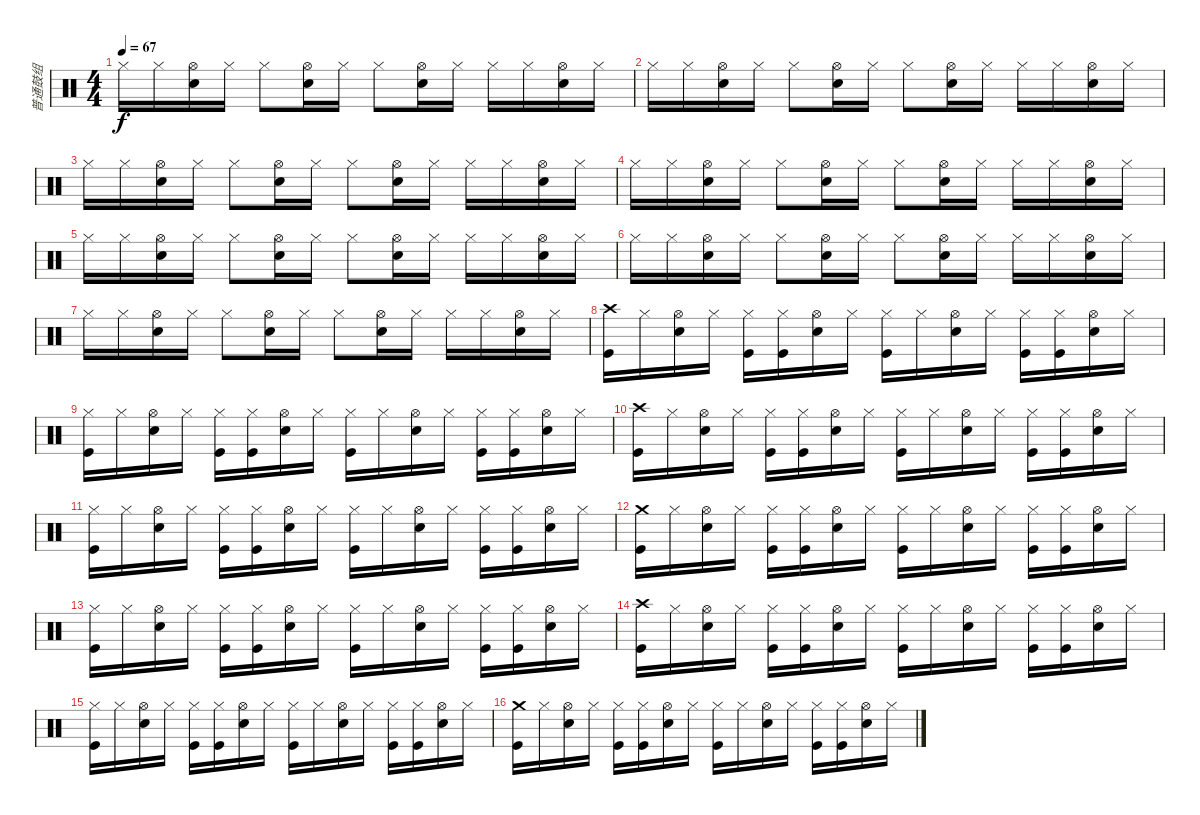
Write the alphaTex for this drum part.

\track ("普通鼓组" "普通鼓组") {instrument percussion}
\staff {score}
\articulation defaults
\ts (4 4)
\tempo 67
\clef neutral
\ks c "Hi-Hat (closed)".16{dy f} "Hi-Hat (closed)".16
("Hi-Hat (open)" "Metronome (bell)").16 "Hi-Hat (closed)".16 "Hi-Hat (closed)".8 ("Hi-Hat (open)" "Metronome (bell)").16 "Hi-Hat (closed)".16 "Hi-Hat (closed)".8 ("Hi-Hat (open)" "Metronome (bell)").16 "Hi-Hat (closed)".16 "Hi-Hat (closed)".16 "Hi-Hat (closed)".16 ("Hi-Hat (open)" "Metronome (bell)").16 "Hi-Hat (closed)".16 |
"Hi-Hat (closed)".16 "Hi-Hat (closed)".16 ("Hi-Hat (open)" "Metronome (bell)").16 "Hi-Hat (closed)".16 "Hi-Hat (closed)".8 ("Hi-Hat (open)" "Metronome (bell)").16 "Hi-Hat (closed)".16 "Hi-Hat (closed)".8 ("Hi-Hat (open)" "Metronome (bell)").16 "Hi-Hat (closed)".16 "Hi-Hat (closed)".16 "Hi-Hat (closed)".16 ("Hi-Hat (open)" "Metronome (bell)").16 "Hi-Hat (closed)".16 |
"Hi-Hat (closed)".16 "Hi-Hat (closed)".16 ("Hi-Hat (open)" "Metronome (bell)").16 "Hi-Hat (closed)".16 "Hi-Hat (closed)".8 ("Hi-Hat (open)" "Metronome (bell)").16 "Hi-Hat (closed)".16 "Hi-Hat (closed)".8 ("Hi-Hat (open)" "Metronome (bell)").16 "Hi-Hat (closed)".16 "Hi-Hat (closed)".16 "Hi-Hat (closed)".16 ("Hi-Hat (open)" "Metronome (bell)").16 "Hi-Hat (closed)".16 |
"Hi-Hat (closed)".16 "Hi-Hat (closed)".16 ("Hi-Hat (open)" "Metronome (bell)").16 "Hi-Hat (closed)".16 "Hi-Hat (closed)".8 ("Hi-Hat (open)" "Metronome (bell)").16 "Hi-Hat (closed)".16 "Hi-Hat (closed)".8 ("Hi-Hat (open)" "Metronome (bell)").16 "Hi-Hat (closed)".16 "Hi-Hat (closed)".16 "Hi-Hat (closed)".16 ("Hi-Hat (open)" "Metronome (bell)").16 "Hi-Hat (closed)".16 |
"Hi-Hat (closed)".16 "Hi-Hat (closed)".16 ("Hi-Hat (open)" "Metronome (bell)").16 "Hi-Hat (closed)".16 "Hi-Hat (closed)".8 ("Hi-Hat (open)" "Metronome (bell)").16 "Hi-Hat (closed)".16 "Hi-Hat (closed)".8 ("Hi-Hat (open)" "Metronome (bell)").16 "Hi-Hat (closed)".16 "Hi-Hat (closed)".16 "Hi-Hat (closed)".16 ("Hi-Hat (open)" "Metronome (bell)").16 "Hi-Hat (closed)".16 |
"Hi-Hat (closed)".16 "Hi-Hat (closed)".16 ("Hi-Hat (open)" "Metronome (bell)").16 "Hi-Hat (closed)".16 "Hi-Hat (closed)".8 ("Hi-Hat (open)" "Metronome (bell)").16 "Hi-Hat (closed)".16 "Hi-Hat (closed)".8 ("Hi-Hat (open)" "Metronome (bell)").16 "Hi-Hat (closed)".16 "Hi-Hat (closed)".16 "Hi-Hat (closed)".16 ("Hi-Hat (open)" "Metronome (bell)").16 "Hi-Hat (closed)".16 |
"Hi-Hat (closed)".16 "Hi-Hat (closed)".16 ("Hi-Hat (open)" "Metronome (bell)").16 "Hi-Hat (closed)".16 "Hi-Hat (closed)".8 ("Hi-Hat (open)" "Metronome (bell)").16 "Hi-Hat (closed)".16 "Hi-Hat (closed)".8 ("Hi-Hat (open)" "Metronome (bell)").16 "Hi-Hat (closed)".16 "Hi-Hat (closed)".16 "Hi-Hat (closed)".16 ("Hi-Hat (open)" "Metronome (bell)").16 "Hi-Hat (closed)".16 |
("Crash high (hit)" "Kick (hit)").16 "Hi-Hat (closed)".16 ("Hi-Hat (open)" "Snare (hit) 2").16 "Hi-Hat (closed)".16 ("Hi-Hat (closed)" "Kick (hit)").16 ("Hi-Hat (closed)" "Kick (hit)").16 ("Hi-Hat (open)" "Snare (hit) 2").16 "Hi-Hat (closed)".16 ("Hi-Hat (closed)" "Kick (hit)").16 "Hi-Hat (closed)".16 ("Hi-Hat (open)" "Snare (hit) 2").16 "Hi-Hat (closed)".16 ("Hi-Hat (closed)" "Kick (hit)").16 ("Hi-Hat (closed)" "Kick (hit)").16 ("Hi-Hat (open)" "Snare (hit) 2").16 "Hi-Hat (closed)".16 |
("Hi-Hat (closed)" "Kick (hit)").16 "Hi-Hat (closed)".16 ("Hi-Hat (open)" "Snare (hit) 2").16 "Hi-Hat (closed)".16 ("Hi-Hat (closed)" "Kick (hit)").16 ("Hi-Hat (closed)" "Kick (hit)").16 ("Hi-Hat (open)" "Snare (hit) 2").16 "Hi-Hat (closed)".16 ("Hi-Hat (closed)" "Kick (hit)").16 "Hi-Hat (closed)".16 ("Hi-Hat (open)" "Snare (hit) 2").16 "Hi-Hat (closed)".16 ("Hi-Hat (closed)" "Kick (hit)").16 ("Hi-Hat (closed)" "Kick (hit)").16 ("Hi-Hat (open)" "Snare (hit) 2").16 "Hi-Hat (closed)".16 |
("Crash high (hit)" "Kick (hit)").16 "Hi-Hat (closed)".16 ("Hi-Hat (open)" "Snare (hit) 2").16 "Hi-Hat (closed)".16 ("Hi-Hat (closed)" "Kick (hit)").16 ("Hi-Hat (closed)" "Kick (hit)").16 ("Hi-Hat (open)" "Snare (hit) 2").16 "Hi-Hat (closed)".16 ("Hi-Hat (closed)" "Kick (hit)").16 "Hi-Hat (closed)".16 ("Hi-Hat (open)" "Snare (hit) 2").16 "Hi-Hat (closed)".16 ("Hi-Hat (closed)" "Kick (hit)").16 ("Hi-Hat (closed)" "Kick (hit)").16 ("Hi-Hat (open)" "Snare (hit) 2").16 "Hi-Hat (closed)".16 |
("Hi-Hat (closed)" "Kick (hit)").16 "Hi-Hat (closed)".16 ("Hi-Hat (open)" "Snare (hit) 2").16 "Hi-Hat (closed)".16 ("Hi-Hat (closed)" "Kick (hit)").16 ("Hi-Hat (closed)" "Kick (hit)").16 ("Hi-Hat (open)" "Snare (hit) 2").16 "Hi-Hat (closed)".16 ("Hi-Hat (closed)" "Kick (hit)").16 "Hi-Hat (closed)".16 ("Hi-Hat (open)" "Snare (hit) 2").16 "Hi-Hat (closed)".16 ("Hi-Hat (closed)" "Kick (hit)").16 ("Hi-Hat (closed)" "Kick (hit)").16 ("Hi-Hat (open)" "Snare (hit) 2").16 "Hi-Hat (closed)".16 |
("Crash medium (hit)" "Kick (hit)").16 "Hi-Hat (closed)".16 ("Hi-Hat (open)" "Snare (hit) 2").16 "Hi-Hat (closed)".16 ("Hi-Hat (closed)" "Kick (hit)").16 ("Hi-Hat (closed)" "Kick (hit)").16 ("Hi-Hat (open)" "Snare (hit) 2").16 "Hi-Hat (closed)".16 ("Hi-Hat (closed)" "Kick (hit)").16 "Hi-Hat (closed)".16 ("Hi-Hat (open)" "Snare (hit) 2").16 "Hi-Hat (closed)".16 ("Hi-Hat (closed)" "Kick (hit)").16 ("Hi-Hat (closed)" "Kick (hit)").16 ("Hi-Hat (open)" "Snare (hit) 2").16 "Hi-Hat (closed)".16 |
("Hi-Hat (closed)" "Kick (hit)").16 "Hi-Hat (closed)".16 ("Hi-Hat (open)" "Snare (hit) 2").16 "Hi-Hat (closed)".16 ("Hi-Hat (closed)" "Kick (hit)").16 ("Hi-Hat (closed)" "Kick (hit)").16 ("Hi-Hat (open)" "Snare (hit) 2").16 "Hi-Hat (closed)".16 ("Hi-Hat (closed)" "Kick (hit)").16 "Hi-Hat (closed)".16 ("Hi-Hat (open)" "Snare (hit) 2").16 "Hi-Hat (closed)".16 ("Hi-Hat (closed)" "Kick (hit)").16 ("Hi-Hat (closed)" "Kick (hit)").16 ("Hi-Hat (open)" "Snare (hit) 2").16 "Hi-Hat (closed)".16 |
("Crash high (hit)" "Kick (hit)").16 "Hi-Hat (closed)".16 ("Hi-Hat (open)" "Snare (hit) 2").16 "Hi-Hat (closed)".16 ("Hi-Hat (closed)" "Kick (hit)").16 ("Hi-Hat (closed)" "Kick (hit)").16 ("Hi-Hat (open)" "Snare (hit) 2").16 "Hi-Hat (closed)".16 ("Hi-Hat (closed)" "Kick (hit)").16 "Hi-Hat (closed)".16 ("Hi-Hat (open)" "Snare (hit) 2").16 "Hi-Hat (closed)".16 ("Hi-Hat (closed)" "Kick (hit)").16 ("Hi-Hat (closed)" "Kick (hit)").16 ("Hi-Hat (open)" "Snare (hit) 2").16 "Hi-Hat (closed)".16 |
("Hi-Hat (closed)" "Kick (hit)").16 "Hi-Hat (closed)".16 ("Hi-Hat (open)" "Snare (hit) 2").16 "Hi-Hat (closed)".16 ("Hi-Hat (closed)" "Kick (hit)").16 ("Hi-Hat (closed)" "Kick (hit)").16 ("Hi-Hat (open)" "Snare (hit) 2").16 "Hi-Hat (closed)".16 ("Hi-Hat (closed)" "Kick (hit)").16 "Hi-Hat (closed)".16 ("Hi-Hat (open)" "Snare (hit) 2").16 "Hi-Hat (closed)".16 ("Hi-Hat (closed)" "Kick (hit)").16 ("Hi-Hat (closed)" "Kick (hit)").16 ("Hi-Hat (open)" "Snare (hit) 2").16 "Hi-Hat (closed)".16 |
("Crash medium (hit)" "Kick (hit)").16 "Hi-Hat (closed)".16 ("Hi-Hat (open)" "Snare (hit) 2").16 "Hi-Hat (closed)".16 ("Hi-Hat (closed)" "Kick (hit)").16 ("Hi-Hat (closed)" "Kick (hit)").16 ("Hi-Hat (open)" "Snare (hit) 2").16 "Hi-Hat (closed)".16 ("Hi-Hat (closed)" "Kick (hit)").16 "Hi-Hat (closed)".16 ("Hi-Hat (open)" "Snare (hit) 2").16 "Hi-Hat (closed)".16 ("Hi-Hat (closed)" "Kick (hit)").16 ("Hi-Hat (closed)" "Kick (hit)").16 ("Hi-Hat (open)" "Snare (hit) 2").16 "Hi-Hat (closed)".16
